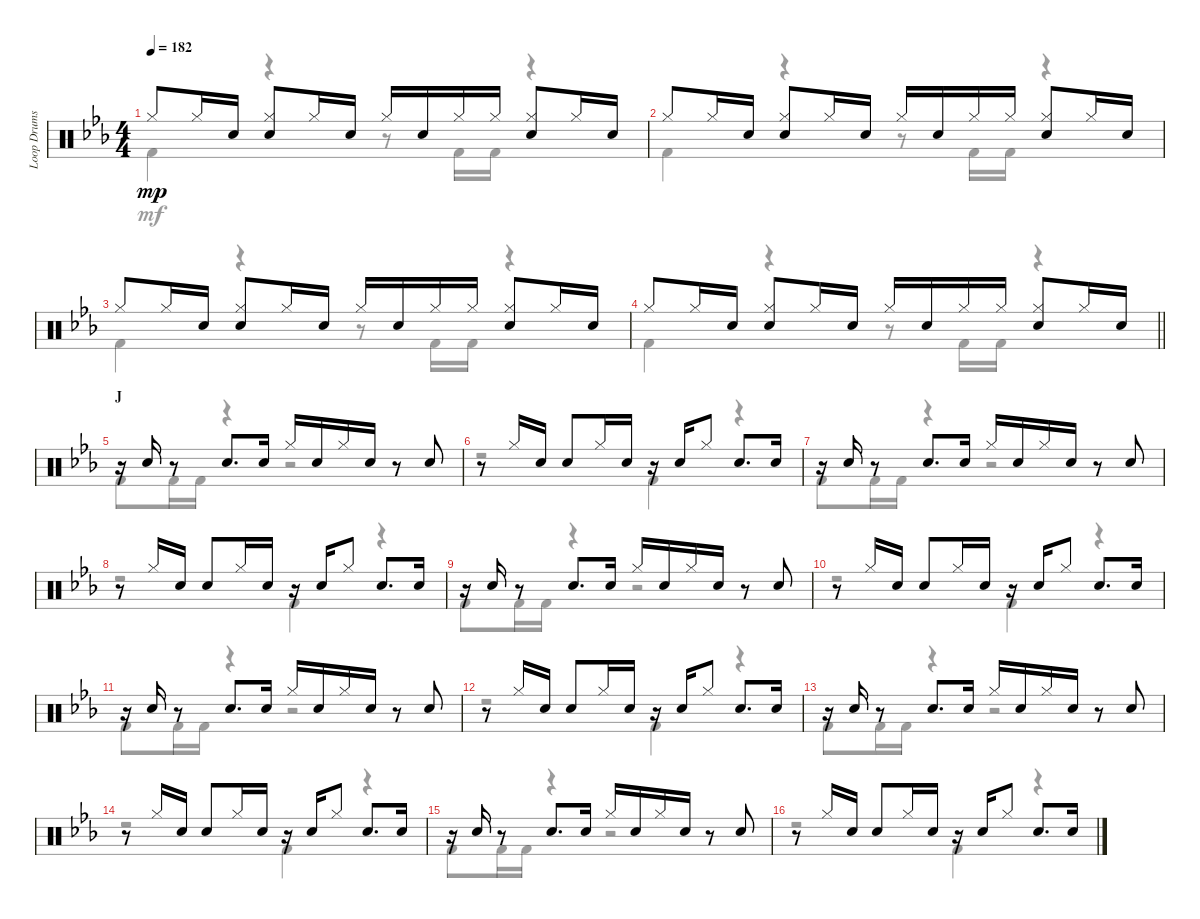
\track ("Loop Drums" "Loop Drums") {instrument percussion}
\staff {score}
\articulation defaults
\voice
\ts (4 4)
\tempo 182
\clef neutral
\ks eb "Hi-Hat (closed)".8{dy mp} "Hi-Hat (closed)".16 "Electric Snare (hit)".16
("Hi-Hat (closed)" "Electric Snare (hit)").8 "Hi-Hat (closed)".16 "Electric Snare (hit)".16 "Hi-Hat (closed)".16 "Electric Snare (hit)".16 "Hi-Hat (closed)".16 "Hi-Hat (closed)".16 ("Hi-Hat (closed)" "Electric Snare (hit)").8 "Hi-Hat (closed)".16 "Electric Snare (hit)".16 |
"Hi-Hat (closed)".8 "Hi-Hat (closed)".16 "Electric Snare (hit)".16 ("Hi-Hat (closed)" "Electric Snare (hit)").8 "Hi-Hat (closed)".16 "Electric Snare (hit)".16 "Hi-Hat (closed)".16 "Electric Snare (hit)".16 "Hi-Hat (closed)".16 "Hi-Hat (closed)".16 ("Hi-Hat (closed)" "Electric Snare (hit)").8 "Hi-Hat (closed)".16 "Electric Snare (hit)".16 |
"Hi-Hat (closed)".8 "Hi-Hat (closed)".16 "Electric Snare (hit)".16 ("Hi-Hat (closed)" "Electric Snare (hit)").8 "Hi-Hat (closed)".16 "Electric Snare (hit)".16 "Hi-Hat (closed)".16 "Electric Snare (hit)".16 "Hi-Hat (closed)".16 "Hi-Hat (closed)".16 ("Hi-Hat (closed)" "Electric Snare (hit)").8 "Hi-Hat (closed)".16 "Electric Snare (hit)".16 |
\barLineRight lightlight "Hi-Hat (closed)".8 "Hi-Hat (closed)".16 "Electric Snare (hit)".16
("Hi-Hat (closed)" "Electric Snare (hit)").8 "Hi-Hat (closed)".16 "Electric Snare (hit)".16 "Hi-Hat (closed)".16 "Electric Snare (hit)".16 "Hi-Hat (closed)".16 "Hi-Hat (closed)".16 ("Hi-Hat (closed)" "Electric Snare (hit)").8 "Hi-Hat (closed)".16 "Electric Snare (hit)".16 |
\section ("" "J")
r.16 "Electric Snare (hit)".16 r.8 "Electric Snare (hit)".8{d} "Electric Snare (hit)".16 "Hi-Hat (closed)".16 "Electric Snare (hit)".16 "Hi-Hat (closed)".16 "Electric Snare (hit)".16 r.8 "Electric Snare (hit)".8 |
r.8 "Hi-Hat (closed)".16 "Electric Snare (hit)".16 "Electric Snare (hit)".8 "Hi-Hat (closed)".16 "Electric Snare (hit)".16 r.16 "Electric Snare (hit)".16 "Hi-Hat (closed)".8 "Electric Snare (hit)".8{d} "Electric Snare (hit)".16 |
r.16 "Electric Snare (hit)".16 r.8 "Electric Snare (hit)".8{d} "Electric Snare (hit)".16 "Hi-Hat (closed)".16 "Electric Snare (hit)".16 "Hi-Hat (closed)".16 "Electric Snare (hit)".16 r.8 "Electric Snare (hit)".8 |
r.8 "Hi-Hat (closed)".16 "Electric Snare (hit)".16 "Electric Snare (hit)".8 "Hi-Hat (closed)".16 "Electric Snare (hit)".16 r.16 "Electric Snare (hit)".16 "Hi-Hat (closed)".8 "Electric Snare (hit)".8{d} "Electric Snare (hit)".16 |
r.16 "Electric Snare (hit)".16 r.8 "Electric Snare (hit)".8{d} "Electric Snare (hit)".16 "Hi-Hat (closed)".16 "Electric Snare (hit)".16 "Hi-Hat (closed)".16 "Electric Snare (hit)".16 r.8 "Electric Snare (hit)".8 |
r.8 "Hi-Hat (closed)".16 "Electric Snare (hit)".16 "Electric Snare (hit)".8 "Hi-Hat (closed)".16 "Electric Snare (hit)".16 r.16 "Electric Snare (hit)".16 "Hi-Hat (closed)".8 "Electric Snare (hit)".8{d} "Electric Snare (hit)".16 |
r.16 "Electric Snare (hit)".16 r.8 "Electric Snare (hit)".8{d} "Electric Snare (hit)".16 "Hi-Hat (closed)".16 "Electric Snare (hit)".16 "Hi-Hat (closed)".16 "Electric Snare (hit)".16 r.8 "Electric Snare (hit)".8 |
r.8 "Hi-Hat (closed)".16 "Electric Snare (hit)".16 "Electric Snare (hit)".8 "Hi-Hat (closed)".16 "Electric Snare (hit)".16 r.16 "Electric Snare (hit)".16 "Hi-Hat (closed)".8 "Electric Snare (hit)".8{d} "Electric Snare (hit)".16 |
r.16 "Electric Snare (hit)".16 r.8 "Electric Snare (hit)".8{d} "Electric Snare (hit)".16 "Hi-Hat (closed)".16 "Electric Snare (hit)".16 "Hi-Hat (closed)".16 "Electric Snare (hit)".16 r.8 "Electric Snare (hit)".8 |
r.8 "Hi-Hat (closed)".16 "Electric Snare (hit)".16 "Electric Snare (hit)".8 "Hi-Hat (closed)".16 "Electric Snare (hit)".16 r.16 "Electric Snare (hit)".16 "Hi-Hat (closed)".8 "Electric Snare (hit)".8{d} "Electric Snare (hit)".16 |
r.16 "Electric Snare (hit)".16 r.8 "Electric Snare (hit)".8{d} "Electric Snare (hit)".16 "Hi-Hat (closed)".16 "Electric Snare (hit)".16 "Hi-Hat (closed)".16 "Electric Snare (hit)".16 r.8 "Electric Snare (hit)".8 |
r.8 "Hi-Hat (closed)".16 "Electric Snare (hit)".16 "Electric Snare (hit)".8 "Hi-Hat (closed)".16 "Electric Snare (hit)".16 r.16 "Electric Snare (hit)".16 "Hi-Hat (closed)".8 "Electric Snare (hit)".8{d} "Electric Snare (hit)".16
\voice
\clef neutral
\ottava regular
\simile none
\ks eb "Kick (hit) 2".4{dy mf}
r.4 r.8 "Kick (hit) 2".16 "Kick (hit) 2".16 r.4 |
"Kick (hit) 2".4 r.4 r.8 "Kick (hit) 2".16 "Kick (hit) 2".16 r.4 |
"Kick (hit) 2".4 r.4 r.8 "Kick (hit) 2".16 "Kick (hit) 2".16 r.4 |
\barLineRight lightlight "Kick (hit) 2".4
r.4 r.8 "Kick (hit) 2".16 "Kick (hit) 2".16 r.4 |
"Kick (hit) 2".8 "Kick (hit) 2".16 "Kick (hit) 2".16 r.4 r.2 |
r.2 "Kick (hit) 2".4 r.4 |
"Kick (hit) 2".8 "Kick (hit) 2".16 "Kick (hit) 2".16 r.4 r.2 |
r.2 "Kick (hit) 2".4 r.4 |
"Kick (hit) 2".8 "Kick (hit) 2".16 "Kick (hit) 2".16 r.4 r.2 |
r.2 "Kick (hit) 2".4 r.4 |
"Kick (hit) 2".8 "Kick (hit) 2".16 "Kick (hit) 2".16 r.4 r.2 |
r.2 "Kick (hit) 2".4 r.4 |
"Kick (hit) 2".8 "Kick (hit) 2".16 "Kick (hit) 2".16 r.4 r.2 |
r.2 "Kick (hit) 2".4 r.4 |
"Kick (hit) 2".8 "Kick (hit) 2".16 "Kick (hit) 2".16 r.4 r.2 |
r.2 "Kick (hit) 2".4 r.4
